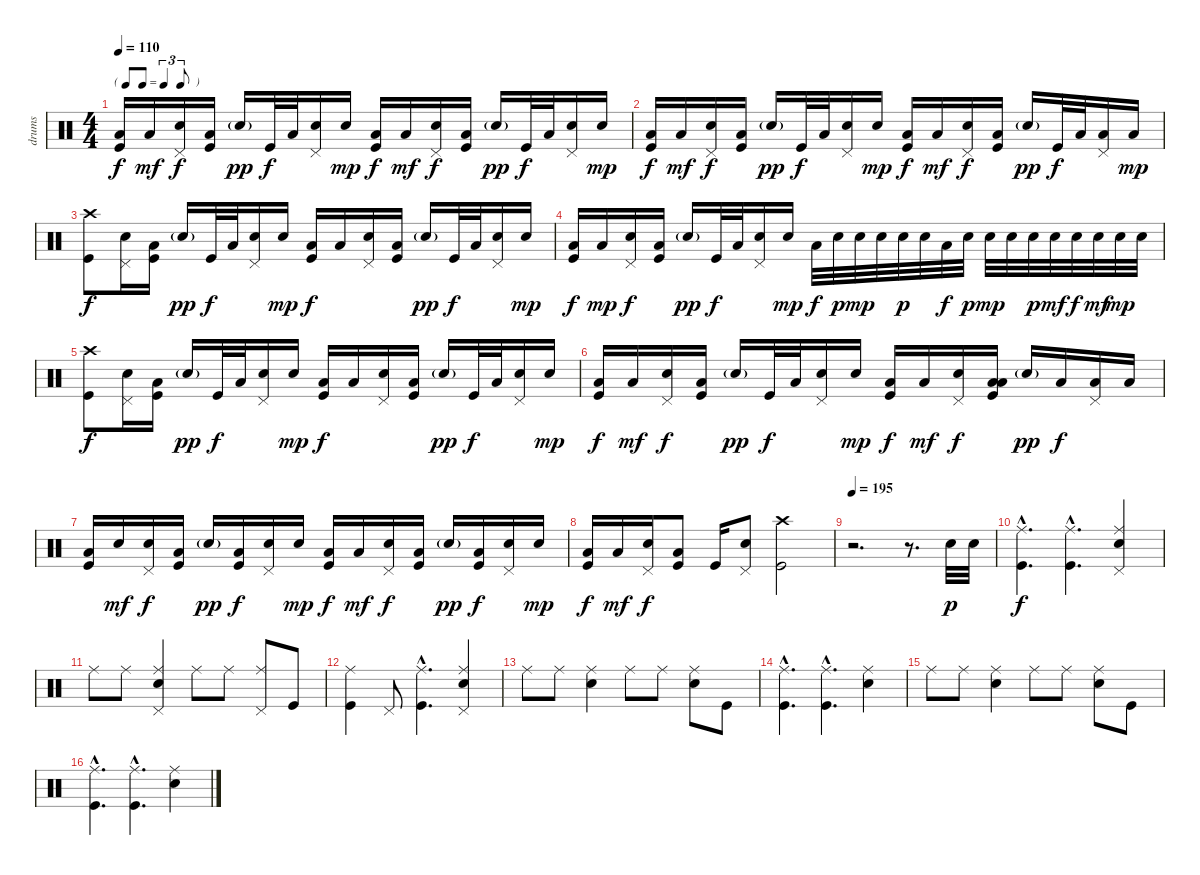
\track ("drums" "drums") {instrument percussion}
\staff {score}
\articulation defaults
\ts (4 4)
\tf triplet8th
\tempo 110
\clef neutral
\ks c
("Low Tom (hit)" "Kick (hit)").16{dy f} "Low Tom (hit)".16{dy mf} ("Pedal Hi-Hat (hit)" "Snare (hit) 2").16{dy f} ("Low Floor Tom (hit)" "Kick (hit)").16 "Snare (hit) 2"{g}.16{dy pp} "Kick (hit)".32{dy f} "Low Floor Tom (hit)".32 ("Pedal Hi-Hat (hit)" "Snare (hit) 2").16 "Snare (hit) 2".16{dy mp} ("Low Tom (hit)" "Kick (hit)").16{dy f} "Low Tom (hit)".16{dy mf} ("Pedal Hi-Hat (hit)" "Snare (hit) 2").16{dy f} ("Low Floor Tom (hit)" "Kick (hit)").16 "Snare (hit) 2"{g}.16{dy pp} "Kick (hit)".32{dy f} "Low Floor Tom (hit)".32 ("Pedal Hi-Hat (hit)" "Snare (hit) 2").16 "Snare (hit) 2".16{dy mp} |
("Low Tom (hit)" "Kick (hit)").16{dy f} "Low Tom (hit)".16{dy mf} ("Pedal Hi-Hat (hit)" "Snare (hit) 2").16{dy f} ("Low Floor Tom (hit)" "Kick (hit)").16 "Snare (hit) 2"{g}.16{dy pp} "Kick (hit)".32{dy f} "Low Floor Tom (hit)".32 ("Pedal Hi-Hat (hit)" "Snare (hit) 2").16 "Snare (hit) 2".16{dy mp} ("Low Tom (hit)" "Kick (hit)").16{dy f} "Low Tom (hit)".16{dy mf} ("Pedal Hi-Hat (hit)" "Snare (hit) 2").16{dy f} ("Low Floor Tom (hit)" "Kick (hit)").16 "Snare (hit) 2"{g}.16{dy pp} "Kick (hit)".32{dy f} "Low Floor Tom (hit)".32 ("Pedal Hi-Hat (hit)" "Low Tom (hit)").16 "Low Tom (hit)".16{dy mp} |
("Crash high (hit)" "Kick (hit)").8{dy f} ("Pedal Hi-Hat (hit)" "Snare (hit) 2").16 ("Low Tom (hit)" "Kick (hit)").16 "Snare (hit) 2"{g}.16{dy pp} "Kick (hit)".32{dy f} "Low Tom (hit)".32 ("Pedal Hi-Hat (hit)" "Snare (hit) 2").16 "Snare (hit) 2".16{dy mp} ("Low Floor Tom (hit)" "Kick (hit)").16{dy f} "Low Floor Tom (hit)".16 ("Pedal Hi-Hat (hit)" "Snare (hit) 2").16 ("Low Floor Tom (hit)" "Kick (hit)").16 "Snare (hit) 2"{g}.16{dy pp} "Kick (hit)".32{dy f} "Low Floor Tom (hit)".32 ("Pedal Hi-Hat (hit)" "Snare (hit) 2").16 "Snare (hit) 2".16{dy mp} |
("Low Floor Tom (hit)" "Kick (hit)").16{dy f} "Low Floor Tom (hit)".16{dy mp} ("Pedal Hi-Hat (hit)" "Snare (hit) 2").16{dy f} ("Low Floor Tom (hit)" "Kick (hit)").16 "Snare (hit) 2"{g}.16{dy pp} "Kick (hit)".32{dy f} "Low Floor Tom (hit)".32 ("Pedal Hi-Hat (hit)" "Snare (hit) 2").16 "Snare (hit) 2".16{dy mp} "Low Tom (hit)".32{dy f} "Snare (hit) 2".32{dy p} "Snare (hit) 2".32{dy mp} "Snare (hit) 2".32 "Snare (hit) 2".32{dy p} "Snare (hit) 2".32 "Low Tom (hit)".32{dy f} "Snare (hit) 2".32{dy p} "Snare (hit) 2".32{dy mp} "Snare (hit) 2".32 "Snare (hit) 2".32{dy p} "Snare (hit) 2".32{dy mf} "Snare (hit) 2".32{dy f} "Snare (hit) 2".32{dy mf} "Snare (hit) 2".32{dy mp} "Snare (hit) 2".32 |
("Crash high (hit)" "Kick (hit)").8{dy f} ("Pedal Hi-Hat (hit)" "Snare (hit) 2").16 ("Low Tom (hit)" "Kick (hit)").16 "Snare (hit) 2"{g}.16{dy pp} "Kick (hit)".32{dy f} "Low Tom (hit)".32 ("Pedal Hi-Hat (hit)" "Snare (hit) 2").16 "Snare (hit) 2".16{dy mp} ("Low Floor Tom (hit)" "Kick (hit)").16{dy f} "Low Floor Tom (hit)".16 ("Pedal Hi-Hat (hit)" "Snare (hit) 2").16 ("Low Floor Tom (hit)" "Kick (hit)").16 "Snare (hit) 2"{g}.16{dy pp} "Kick (hit)".32{dy f} "Low Floor Tom (hit)".32 ("Pedal Hi-Hat (hit)" "Snare (hit) 2").16 "Snare (hit) 2".16{dy mp} |
("Low Tom (hit)" "Kick (hit)").16{dy f} "Low Tom (hit)".16{dy mf} ("Pedal Hi-Hat (hit)" "Snare (hit) 2").16{dy f} ("Low Floor Tom (hit)" "Kick (hit)").16 "Snare (hit) 2"{g}.16{dy pp} "Kick (hit)".32{dy f} "Low Floor Tom (hit)".32 ("Pedal Hi-Hat (hit)" "Snare (hit) 2").16 "Snare (hit) 2".16{dy mp} ("Low Tom (hit)" "Kick (hit)").16{dy f} "Low Tom (hit)".16{dy mf} ("Pedal Hi-Hat (hit)" "Snare (hit) 2").16{dy f} ("Low Tom (hit)" "Low Floor Tom (hit)" "Kick (hit)").16 "Snare (hit) 2"{g}.16{dy pp} "Low Tom (hit)".16{dy f} ("Pedal Hi-Hat (hit)" "Low Floor Tom (hit)").16 "Low Tom (hit)".16 |
("Low Floor Tom (hit)" "Kick (hit)").16 "Snare (hit)".16{dy mf} ("Pedal Hi-Hat (hit)" "Snare (hit) 2").16{dy f} ("Low Tom (hit)" "Kick (hit)").16 "Snare (hit) 2"{g}.16{dy pp} ("Low Tom (hit)" "Kick (hit)").16{dy f} ("Pedal Hi-Hat (hit)" "Snare (hit) 2").16 "Snare (hit) 2".16{dy mp} ("Low Floor Tom (hit)" "Kick (hit)").16{dy f} "Low Floor Tom (hit)".16{dy mf} ("Pedal Hi-Hat (hit)" "Snare (hit) 2").16{dy f} ("Low Tom (hit)" "Kick (hit)").16 "Snare (hit) 2"{g}.16{dy pp} ("Low Tom (hit)" "Kick (hit)").16{dy f} ("Pedal Hi-Hat (hit)" "Snare (hit) 2").16 "Snare (hit) 2".16{dy mp} |
("Low Tom (hit)" "Kick (hit)").16{dy f} "Low Tom (hit)".16{dy mf} ("Pedal Hi-Hat (hit)" "Snare (hit) 2").16{dy f} ("Low Tom (hit)" "Kick (hit)").8 "Kick (hit)".16 ("Pedal Hi-Hat (hit)" "Snare (hit) 2").8 ("Crash high (hit)" "Kick (hit)").2 |
\tempo 195
r.2{d} r.8{d} "Snare (hit) 2".32{dy p} "Snare (hit) 2".32 |
("Ride (middle)"{hac} "Kick (hit)"{hac}).4{d dy f} ("Ride (middle)"{hac} "Kick (hit)"{hac}).4{d} ("Ride (middle)" "Pedal Hi-Hat (hit)" "Snare (hit) 2").4 |
"Ride (middle)".8 "Ride (middle)".8 ("Ride (middle)" "Pedal Hi-Hat (hit)" "Snare (hit) 2").4 "Ride (middle)".8 "Ride (middle)".8 ("Ride (middle)" "Pedal Hi-Hat (hit)").8 "Kick (hit)".8 |
("Ride (middle)" "Kick (hit)").4 "Pedal Hi-Hat (hit)".8 ("Ride (middle)"{hac} "Kick (hit)"{hac}).4{d} ("Ride (middle)" "Pedal Hi-Hat (hit)" "Snare (hit) 2").4 |
"Ride (middle)".8 "Ride (middle)".8 ("Ride (middle)" "Snare (hit) 2").4 "Ride (middle)".8 "Ride (middle)".8 ("Ride (middle)" "Snare (hit) 2").8 "Kick (hit)".8 |
("Ride (middle)"{hac} "Kick (hit)"{hac}).4{d} ("Ride (middle)"{hac} "Kick (hit)"{hac}).4{d} ("Ride (middle)" "Snare (hit) 2").4 |
"Ride (middle)".8 "Ride (middle)".8 ("Ride (middle)" "Snare (hit) 2").4 "Ride (middle)".8 "Ride (middle)".8 ("Ride (middle)" "Snare (hit) 2").8 "Kick (hit)".8 |
("Ride (middle)"{hac} "Kick (hit)"{hac}).4{d} ("Ride (middle)"{hac} "Kick (hit)"{hac}).4{d} ("Ride (middle)" "Snare (hit) 2").4
